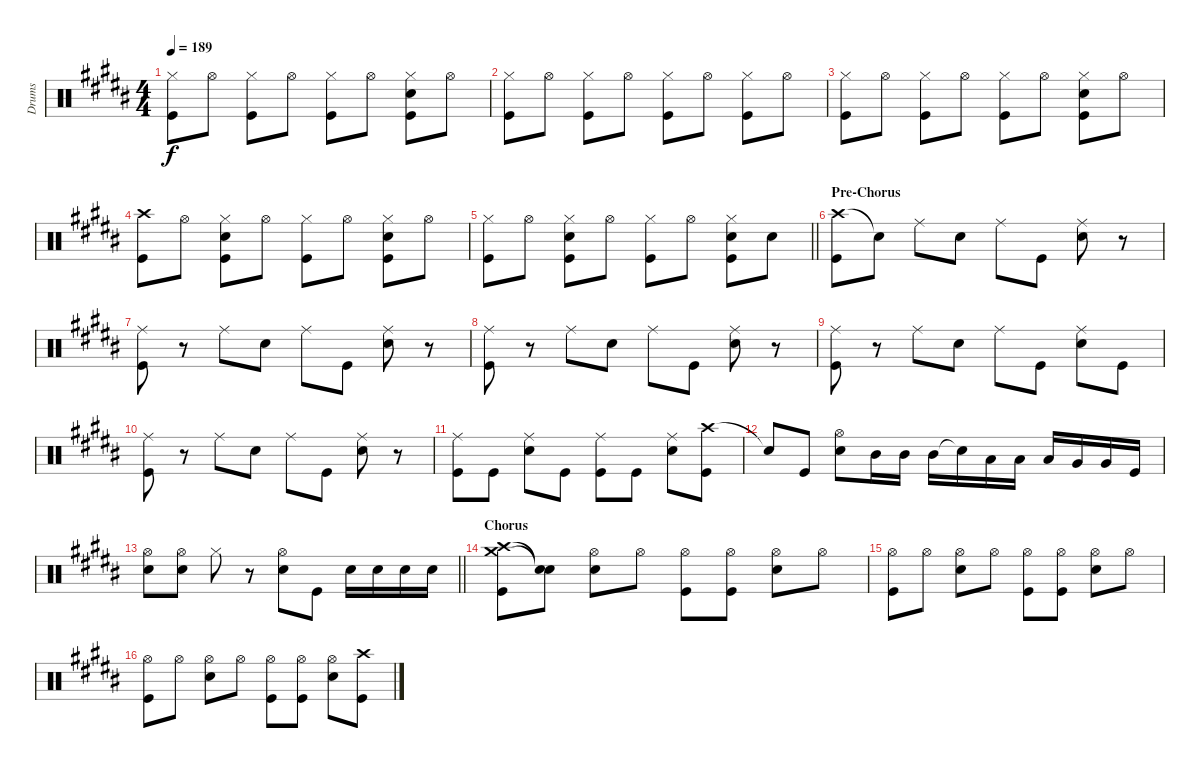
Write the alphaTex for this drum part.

\track ("Drums" "Drums") {instrument percussion}
\staff {score}
\articulation defaults
\ts (4 4)
\tempo 189
\clef neutral
\ks b
("Hi-Hat (closed)" "Kick (hit)").8{dy f} "Hi-Hat (open)".8 ("Hi-Hat (closed)" "Kick (hit)").8 "Hi-Hat (open)".8 ("Hi-Hat (closed)" "Kick (hit)").8 "Hi-Hat (open)".8 ("Hi-Hat (closed)" "Snare (hit) 2" "Kick (hit)").8 "Hi-Hat (open)".8 |
("Hi-Hat (closed)" "Kick (hit)").8 "Hi-Hat (open)".8 ("Hi-Hat (closed)" "Kick (hit)").8 "Hi-Hat (open)".8 ("Hi-Hat (closed)" "Kick (hit)").8 "Hi-Hat (open)".8 ("Hi-Hat (closed)" "Kick (hit)").8 "Hi-Hat (open)".8 |
("Hi-Hat (closed)" "Kick (hit)").8 "Hi-Hat (open)".8 ("Hi-Hat (closed)" "Kick (hit)").8 "Hi-Hat (open)".8 ("Hi-Hat (closed)" "Kick (hit)").8 "Hi-Hat (open)".8 ("Hi-Hat (closed)" "Snare (hit) 2" "Kick (hit)").8 "Hi-Hat (open)".8 |
("Crash high (hit)" "Kick (hit)").8 "Hi-Hat (open)".8 ("Hi-Hat (closed)" "Snare (hit) 2" "Kick (hit)").8 "Hi-Hat (open)".8 ("Hi-Hat (closed)" "Kick (hit)").8 "Hi-Hat (open)".8 ("Hi-Hat (closed)" "Snare (hit) 2" "Kick (hit)").8 "Hi-Hat (open)".8 |
\barLineRight lightlight
("Hi-Hat (closed)" "Kick (hit)").8 "Hi-Hat (open)".8 ("Hi-Hat (closed)" "Snare (hit) 2" "Kick (hit)").8 "Hi-Hat (open)".8 ("Hi-Hat (closed)" "Kick (hit)").8 "Hi-Hat (open)".8 ("Hi-Hat (closed)" "Snare (hit) 2" "Kick (hit)").8 "Snare (hit) 2".8 |
\section ("" "Pre-Chorus")
("Crash high (hit)" "Kick (hit)").8 "Snare (hit)"{t}.8 "Ride (middle)".8 "Snare (hit) 2".8 "Ride (middle)".8 "Kick (hit)".8 ("Ride (middle)" "Snare (hit) 2").8 r.8 |
("Ride (middle)" "Kick (hit)").8 r.8 "Ride (middle)".8 "Snare (hit) 2".8 "Ride (middle)".8 "Kick (hit)".8 ("Ride (middle)" "Snare (hit) 2").8 r.8 |
("Ride (middle)" "Kick (hit)").8 r.8 "Ride (middle)".8 "Snare (hit) 2".8 "Ride (middle)".8 "Kick (hit)".8 ("Ride (middle)" "Snare (hit) 2").8 r.8 |
("Ride (middle)" "Kick (hit)").8 r.8 "Ride (middle)".8 "Snare (hit) 2".8 "Ride (middle)".8 "Kick (hit)".8 ("Ride (middle)" "Snare (hit) 2").8 "Kick (hit)".8 |
("Ride (middle)" "Kick (hit)").8 r.8 "Ride (middle)".8 "Snare (hit) 2".8 "Ride (middle)".8 "Kick (hit)".8 ("Ride (middle)" "Snare (hit) 2").8 r.8 |
("Ride (middle)" "Kick (hit)").8 "Kick (hit)".8 ("Ride (middle)" "Snare (hit) 2").8 "Kick (hit)".8 ("Ride (middle)" "Kick (hit)").8 "Kick (hit)".8 ("Ride (middle)" "Snare (hit) 2").8 ("Crash high (hit)" "Kick (hit)").8 |
"Snare (hit)"{t}.8 "Kick (hit)".8 ("Hi-Hat (open)" "Snare (hit) 2").8 "Mid Tom (hit)".16 "Mid Tom (hit)".16 "Mid Tom (hit)".16 "Snare (hit)"{t}.16 "Low Tom (hit)".16 "Low Tom (hit)".16 "Low Tom (hit)".16 "Very Low Tom (hit)".16 "Very Low Tom (hit)".16 "Kick (hit)".16 |
\barLineRight lightlight
("Hi-Hat (open)" "Snare (hit) 2").8 ("Hi-Hat (open)" "Snare (hit) 2").8 "Hi-Hat (closed)".8 r.8 ("Hi-Hat (open)" "Snare (hit) 2").8 "Kick (hit)".8 "Snare (hit) 2".16 "Snare (hit) 2".16 "Snare (hit) 2".16 "Snare (hit) 2".16 |
\section ("" "Chorus")
("Crash high (hit)" "Crash medium (hit)" "Kick (hit)").8 ("Snare (hit)"{t} "Snare (hit)"{t}).8 ("Hi-Hat (open)" "Snare (hit) 2").8 "Hi-Hat (open)".8 ("Hi-Hat (open)" "Kick (hit)").8 ("Hi-Hat (open)" "Kick (hit)").8 ("Hi-Hat (open)" "Snare (hit) 2").8 "Hi-Hat (open)".8 |
("Hi-Hat (open)" "Kick (hit)").8 "Hi-Hat (open)".8 ("Hi-Hat (open)" "Snare (hit) 2").8 "Hi-Hat (open)".8 ("Hi-Hat (open)" "Kick (hit)").8 ("Hi-Hat (open)" "Kick (hit)").8 ("Hi-Hat (open)" "Snare (hit) 2").8 "Hi-Hat (open)".8 |
("Hi-Hat (open)" "Kick (hit)").8 "Hi-Hat (open)".8 ("Hi-Hat (open)" "Snare (hit) 2").8 "Hi-Hat (open)".8 ("Hi-Hat (open)" "Kick (hit)").8 ("Hi-Hat (open)" "Kick (hit)").8 ("Hi-Hat (open)" "Snare (hit) 2").8 ("Crash high (hit)" "Kick (hit)").8
